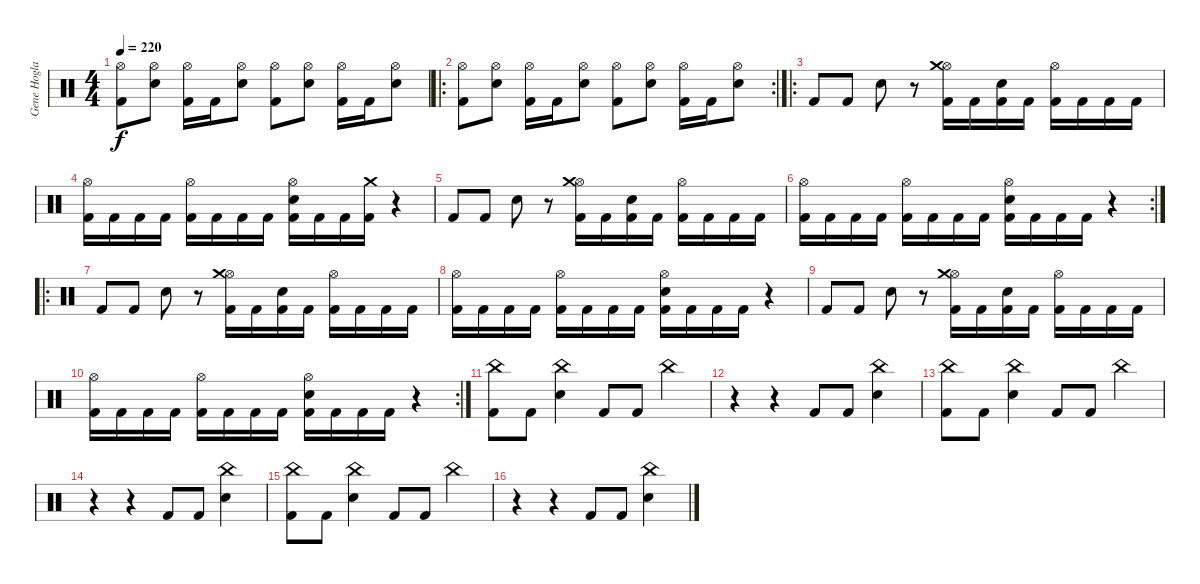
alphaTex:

\track ("Gene Hoglan" "Gene Hogla") {instrument percussion}
\staff {score}
\articulation defaults
\ts (4 4)
\tempo 220
\clef neutral
\ks c
("Hi-Hat (open)" "Kick (hit) 2").8{dy f} ("Hi-Hat (open)" "Electric Snare (hit)").8 ("Hi-Hat (open)" "Kick (hit) 2").16 "Kick (hit) 2".16 ("Hi-Hat (open)" "Electric Snare (hit)").8 ("Hi-Hat (open)" "Kick (hit) 2").8 ("Hi-Hat (open)" "Electric Snare (hit)").8 ("Hi-Hat (open)" "Kick (hit) 2").16 "Kick (hit) 2".16 ("Hi-Hat (open)" "Electric Snare (hit)").8 |
\ro
\rc 2
("Hi-Hat (open)" "Kick (hit) 2").8 ("Hi-Hat (open)" "Electric Snare (hit)").8 ("Hi-Hat (open)" "Kick (hit) 2").16 "Kick (hit) 2".16 ("Hi-Hat (open)" "Electric Snare (hit)").8 ("Hi-Hat (open)" "Kick (hit) 2").8 ("Hi-Hat (open)" "Electric Snare (hit)").8 ("Hi-Hat (open)" "Kick (hit) 2").16 "Kick (hit) 2".16 ("Hi-Hat (open)" "Electric Snare (hit)").8 |
\ro "Kick (hit) 2".8 "Kick (hit) 2".8 "Electric Snare (hit)".8
r.8 ("Hi-Hat (open)" "Crash medium (hit)" "Kick (hit) 2").16 "Kick (hit) 2".16 ("Electric Snare (hit)" "Kick (hit) 2").16 "Kick (hit) 2".16 ("Hi-Hat (open)" "Kick (hit) 2").16 "Kick (hit) 2".16 "Kick (hit) 2".16 "Kick (hit) 2".16 |
("Hi-Hat (open)" "Kick (hit) 2").16 "Kick (hit) 2".16 "Kick (hit) 2".16 "Kick (hit) 2".16 ("Hi-Hat (open)" "Kick (hit) 2").16 "Kick (hit) 2".16 "Kick (hit) 2".16 "Kick (hit) 2".16 ("Hi-Hat (open)" "Electric Snare (hit)" "Kick (hit) 2").16 "Kick (hit) 2".16 "Kick (hit) 2".16 ("Crash medium (hit)" "Kick (hit) 2").16 r.4 |
"Kick (hit) 2".8 "Kick (hit) 2".8 "Electric Snare (hit)".8 r.8 ("Hi-Hat (open)" "Crash medium (hit)" "Kick (hit) 2").16 "Kick (hit) 2".16 ("Electric Snare (hit)" "Kick (hit) 2").16 "Kick (hit) 2".16 ("Hi-Hat (open)" "Kick (hit) 2").16 "Kick (hit) 2".16 "Kick (hit) 2".16 "Kick (hit) 2".16 |
\rc 2
("Hi-Hat (open)" "Kick (hit) 2").16 "Kick (hit) 2".16 "Kick (hit) 2".16 "Kick (hit) 2".16 ("Hi-Hat (open)" "Kick (hit) 2").16 "Kick (hit) 2".16 "Kick (hit) 2".16 "Kick (hit) 2".16 ("Hi-Hat (open)" "Electric Snare (hit)" "Kick (hit) 2").16 "Kick (hit) 2".16 "Kick (hit) 2".16 "Kick (hit) 2".16 r.4 |
\ro "Kick (hit) 2".8 "Kick (hit) 2".8 "Electric Snare (hit)".8
r.8 ("Hi-Hat (open)" "Crash medium (hit)" "Kick (hit) 2").16 "Kick (hit) 2".16 ("Electric Snare (hit)" "Kick (hit) 2").16 "Kick (hit) 2".16 ("Hi-Hat (open)" "Kick (hit) 2").16 "Kick (hit) 2".16 "Kick (hit) 2".16 "Kick (hit) 2".16 |
("Hi-Hat (open)" "Kick (hit) 2").16 "Kick (hit) 2".16 "Kick (hit) 2".16 "Kick (hit) 2".16 ("Hi-Hat (open)" "Kick (hit) 2").16 "Kick (hit) 2".16 "Kick (hit) 2".16 "Kick (hit) 2".16 ("Hi-Hat (open)" "Electric Snare (hit)" "Kick (hit) 2").16 "Kick (hit) 2".16 "Kick (hit) 2".16 "Kick (hit) 2".16 r.4 |
"Kick (hit) 2".8 "Kick (hit) 2".8 "Electric Snare (hit)".8 r.8 ("Hi-Hat (open)" "Crash medium (hit)" "Kick (hit) 2").16 "Kick (hit) 2".16 ("Electric Snare (hit)" "Kick (hit) 2").16 "Kick (hit) 2".16 ("Hi-Hat (open)" "Kick (hit) 2").16 "Kick (hit) 2".16 "Kick (hit) 2".16 "Kick (hit) 2".16 |
\rc 2
("Hi-Hat (open)" "Kick (hit) 2").16 "Kick (hit) 2".16 "Kick (hit) 2".16 "Kick (hit) 2".16 ("Hi-Hat (open)" "Kick (hit) 2").16 "Kick (hit) 2".16 "Kick (hit) 2".16 "Kick (hit) 2".16 ("Hi-Hat (open)" "Electric Snare (hit)" "Kick (hit) 2").16 "Kick (hit) 2".16 "Kick (hit) 2".16 "Kick (hit) 2".16 r.4 |
("China (hit)" "Kick (hit) 2").8 "Kick (hit) 2".8 ("China (hit)" "Electric Snare (hit)").4 "Kick (hit) 2".8 "Kick (hit) 2".8 "China (hit)".4 |
r.4 r.4 "Kick (hit) 2".8 "Kick (hit) 2".8 ("China (hit)" "Electric Snare (hit)").4 |
("China (hit)" "Kick (hit) 2").8 "Kick (hit) 2".8 ("China (hit)" "Electric Snare (hit)").4 "Kick (hit) 2".8 "Kick (hit) 2".8 "China (hit)".4 |
r.4 r.4 "Kick (hit) 2".8 "Kick (hit) 2".8 ("China (hit)" "Electric Snare (hit)").4 |
("China (hit)" "Kick (hit) 2").8 "Kick (hit) 2".8 ("China (hit)" "Electric Snare (hit)").4 "Kick (hit) 2".8 "Kick (hit) 2".8 "China (hit)".4 |
r.4 r.4 "Kick (hit) 2".8 "Kick (hit) 2".8 ("China (hit)" "Electric Snare (hit)").4
